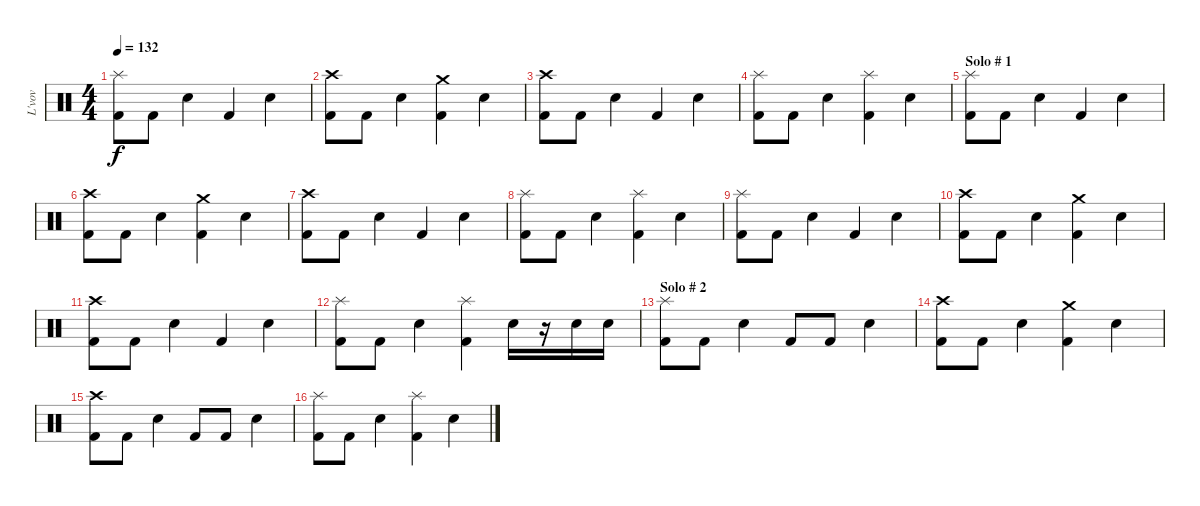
\track ("L'vov" "L'vov") {instrument percussion}
\staff {score}
\articulation defaults
\ts (4 4)
\tempo 132
\clef neutral
\ks c
("Kick (hit) 2" "Splash (hit)").8{dy f} "Kick (hit) 2".8 "Snare (hit) 2".4 "Kick (hit) 2".4 "Snare (hit) 2".4 |
("Kick (hit) 2" "Crash high (hit)").8 "Kick (hit) 2".8 "Snare (hit) 2".4 ("Kick (hit) 2" "Crash medium (hit)").4 "Snare (hit) 2".4 |
("Kick (hit) 2" "Crash high (hit)").8 "Kick (hit) 2".8 "Snare (hit) 2".4 "Kick (hit) 2".4 "Snare (hit) 2".4 |
("Kick (hit) 2" "Splash (hit)").8 "Kick (hit) 2".8 "Snare (hit) 2".4 ("Kick (hit) 2" "Splash (hit)").4 "Snare (hit) 2".4 |
\section ("" "Solo # 1")
("Kick (hit) 2" "Splash (hit)").8 "Kick (hit) 2".8 "Snare (hit) 2".4 "Kick (hit) 2".4 "Snare (hit) 2".4 |
("Kick (hit) 2" "Crash high (hit)").8 "Kick (hit) 2".8 "Snare (hit) 2".4 ("Kick (hit) 2" "Crash medium (hit)").4 "Snare (hit) 2".4 |
("Kick (hit) 2" "Crash high (hit)").8 "Kick (hit) 2".8 "Snare (hit) 2".4 "Kick (hit) 2".4 "Snare (hit) 2".4 |
("Kick (hit) 2" "Splash (hit)").8 "Kick (hit) 2".8 "Snare (hit) 2".4 ("Kick (hit) 2" "Splash (hit)").4 "Snare (hit) 2".4 |
("Kick (hit) 2" "Splash (hit)").8 "Kick (hit) 2".8 "Snare (hit) 2".4 "Kick (hit) 2".4 "Snare (hit) 2".4 |
("Kick (hit) 2" "Crash high (hit)").8 "Kick (hit) 2".8 "Snare (hit) 2".4 ("Kick (hit) 2" "Crash medium (hit)").4 "Snare (hit) 2".4 |
("Kick (hit) 2" "Crash high (hit)").8 "Kick (hit) 2".8 "Snare (hit) 2".4 "Kick (hit) 2".4 "Snare (hit) 2".4 |
("Kick (hit) 2" "Splash (hit)").8 "Kick (hit) 2".8 "Snare (hit) 2".4 ("Kick (hit) 2" "Splash (hit)").4 "Snare (hit) 2".16 r.16 "Snare (hit) 2".16 "Snare (hit) 2".16 |
\section ("" "Solo # 2")
("Kick (hit) 2" "Splash (hit)").8 "Kick (hit) 2".8 "Snare (hit) 2".4 "Kick (hit) 2".8 "Kick (hit) 2".8 "Snare (hit) 2".4 |
("Kick (hit) 2" "Crash high (hit)").8 "Kick (hit) 2".8 "Snare (hit) 2".4 ("Kick (hit) 2" "Crash medium (hit)").4 "Snare (hit) 2".4 |
("Kick (hit) 2" "Crash high (hit)").8 "Kick (hit) 2".8 "Snare (hit) 2".4 "Kick (hit) 2".8 "Kick (hit) 2".8 "Snare (hit) 2".4 |
("Kick (hit) 2" "Splash (hit)").8 "Kick (hit) 2".8 "Snare (hit) 2".4 ("Kick (hit) 2" "Splash (hit)").4 "Snare (hit) 2".4
